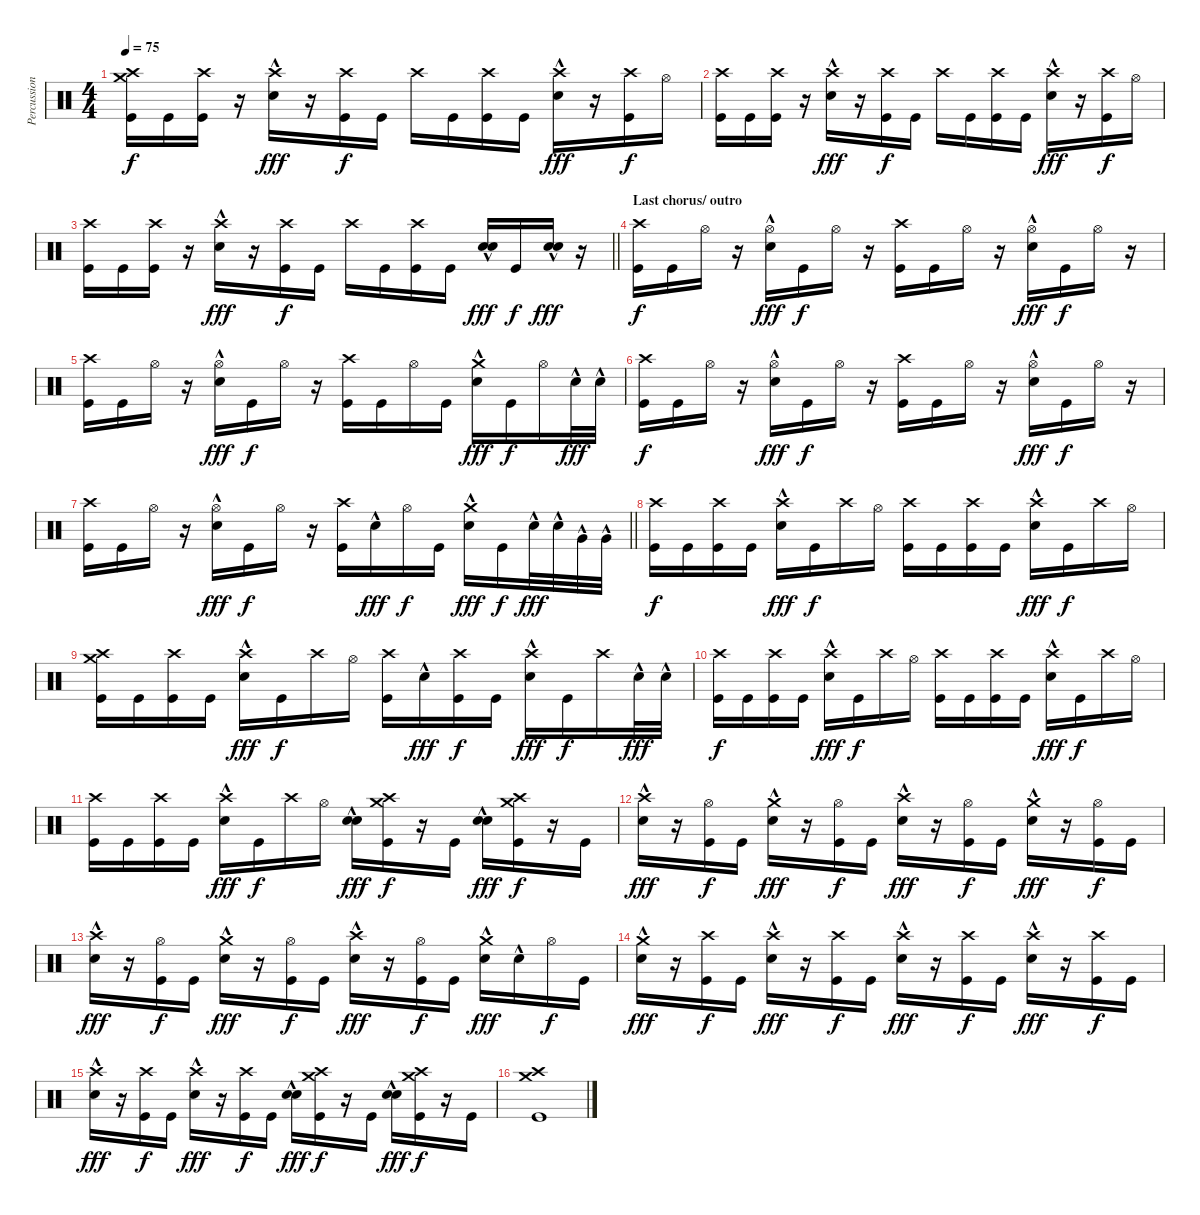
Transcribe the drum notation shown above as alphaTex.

\track ("Percussion" "Percussion") {instrument percussion}
\staff {score}
\articulation defaults
\ts (4 4)
\tempo 75
\clef neutral
\ks c
("Crash high (hit)" "Crash medium (hit)" "Kick (hit)").16{dy f} "Kick (hit)".16 ("Crash high (hit)" "Kick (hit)").16 r.16 ("Crash high (hit)" "Electric Snare (hit)"{hac}).16{dy fff} r.16 ("Crash high (hit)" "Kick (hit)").16{dy f} "Kick (hit)".16 "Crash high (hit)".16 "Kick (hit)".16 ("Crash high (hit)" "Kick (hit)").16 "Kick (hit)".16 ("Crash high (hit)" "Electric Snare (hit)"{hac}).16{dy fff} r.16 ("Crash high (hit)" "Kick (hit)").16{dy f} "Hi-Hat (open)".16 |
("Crash high (hit)" "Kick (hit)").16 "Kick (hit)".16 ("Crash high (hit)" "Kick (hit)").16 r.16 ("Crash high (hit)" "Electric Snare (hit)"{hac}).16{dy fff} r.16 ("Crash high (hit)" "Kick (hit)").16{dy f} "Kick (hit)".16 "Crash high (hit)".16 "Kick (hit)".16 ("Crash high (hit)" "Kick (hit)").16 "Kick (hit)".16 ("Crash high (hit)" "Electric Snare (hit)"{hac}).16{dy fff} r.16 ("Crash high (hit)" "Kick (hit)").16{dy f} "Hi-Hat (open)".16 |
\barLineRight lightlight
("Crash high (hit)" "Kick (hit)").16 "Kick (hit)".16 ("Crash high (hit)" "Kick (hit)").16 r.16 ("Crash high (hit)" "Electric Snare (hit)"{hac}).16{dy fff} r.16 ("Crash high (hit)" "Kick (hit)").16{dy f} "Kick (hit)".16 "Crash high (hit)".16 "Kick (hit)".16 ("Crash high (hit)" "Kick (hit)").16 "Kick (hit)".16 ("Electric Snare (hit)"{hac} "Electric Snare (hit)"{hac}).16{dy fff} "Kick (hit)".16{dy f} ("Electric Snare (hit)"{hac} "Electric Snare (hit)"{hac}).16{dy fff} r.16 |
\section ("" "Last chorus/ outro")
("Crash high (hit)" "Kick (hit)").16{dy f} "Kick (hit)".16 "Hi-Hat (open)".16 r.16 ("Hi-Hat (open)" "Electric Snare (hit)"{hac}).16{dy fff} "Kick (hit)".16{dy f} "Hi-Hat (open)".16 r.16 ("Crash high (hit)" "Kick (hit)").16 "Kick (hit)".16 "Hi-Hat (open)".16 r.16 ("Hi-Hat (open)" "Electric Snare (hit)"{hac}).16{dy fff} "Kick (hit)".16{dy f} "Hi-Hat (open)".16 r.16 |
("Crash high (hit)" "Kick (hit)").16 "Kick (hit)".16 "Hi-Hat (open)".16 r.16 ("Hi-Hat (open)" "Electric Snare (hit)"{hac}).16{dy fff} "Kick (hit)".16{dy f} "Hi-Hat (open)".16 r.16 ("Crash high (hit)" "Kick (hit)").16 "Kick (hit)".16 "Hi-Hat (open)".16 "Kick (hit)".16 ("Crash medium (hit)" "Electric Snare (hit)"{hac}).16{dy fff} "Kick (hit)".16{dy f} "Hi-Hat (open)".16 "Electric Snare (hit)"{hac}.32{dy fff} "Electric Snare (hit)"{hac}.32 |
("Crash high (hit)" "Kick (hit)").16{dy f} "Kick (hit)".16 "Hi-Hat (open)".16 r.16 ("Hi-Hat (open)" "Electric Snare (hit)"{hac}).16{dy fff} "Kick (hit)".16{dy f} "Hi-Hat (open)".16 r.16 ("Crash high (hit)" "Kick (hit)").16 "Kick (hit)".16 "Hi-Hat (open)".16 r.16 ("Hi-Hat (open)" "Electric Snare (hit)"{hac}).16{dy fff} "Kick (hit)".16{dy f} "Hi-Hat (open)".16 r.16 |
\barLineRight lightlight
("Crash high (hit)" "Kick (hit)").16 "Kick (hit)".16 "Hi-Hat (open)".16 r.16 ("Hi-Hat (open)" "Electric Snare (hit)"{hac}).16{dy fff} "Kick (hit)".16{dy f} "Hi-Hat (open)".16 r.16 ("Crash high (hit)" "Kick (hit)").16 "Electric Snare (hit)"{hac}.16{dy fff} "Hi-Hat (open)".16{dy f} "Kick (hit)".16 ("Crash medium (hit)" "Electric Snare (hit)"{hac}).16{dy fff} "Kick (hit)".16{dy f} "Electric Snare (hit)"{hac}.32{dy fff} "Electric Snare (hit)"{hac}.32 "Very Low Tom (hit)"{hac}.32 "Very Low Tom (hit)"{hac}.32 |
("Crash high (hit)" "Kick (hit)").16{dy f} "Kick (hit)".16 ("Crash high (hit)" "Kick (hit)").16 "Kick (hit)".16 ("Crash high (hit)" "Electric Snare (hit)"{hac}).16{dy fff} "Kick (hit)".16{dy f} "Crash high (hit)".16 "Hi-Hat (open)".16 ("Crash high (hit)" "Kick (hit)").16 "Kick (hit)".16 ("Crash high (hit)" "Kick (hit)").16 "Kick (hit)".16 ("Crash high (hit)" "Electric Snare (hit)"{hac}).16{dy fff} "Kick (hit)".16{dy f} "Crash high (hit)".16 "Hi-Hat (open)".16 |
("Crash medium (hit)" "Crash high (hit)" "Kick (hit)").16 "Kick (hit)".16 ("Crash high (hit)" "Kick (hit)").16 "Kick (hit)".16 ("Crash high (hit)" "Electric Snare (hit)"{hac}).16{dy fff} "Kick (hit)".16{dy f} "Crash high (hit)".16 "Hi-Hat (open)".16 ("Crash high (hit)" "Kick (hit)").16 "Electric Snare (hit)"{hac}.16{dy fff} ("Crash high (hit)" "Kick (hit)").16{dy f} "Kick (hit)".16 ("Crash high (hit)" "Electric Snare (hit)"{hac}).16{dy fff} "Kick (hit)".16{dy f} "Crash high (hit)".16 "Electric Snare (hit)"{hac}.32{dy fff} "Electric Snare (hit)"{hac}.32 |
("Crash high (hit)" "Kick (hit)").16{dy f} "Kick (hit)".16 ("Crash high (hit)" "Kick (hit)").16 "Kick (hit)".16 ("Crash high (hit)" "Electric Snare (hit)"{hac}).16{dy fff} "Kick (hit)".16{dy f} "Crash high (hit)".16 "Hi-Hat (open)".16 ("Crash high (hit)" "Kick (hit)").16 "Kick (hit)".16 ("Crash high (hit)" "Kick (hit)").16 "Kick (hit)".16 ("Crash high (hit)" "Electric Snare (hit)"{hac}).16{dy fff} "Kick (hit)".16{dy f} "Crash high (hit)".16 "Hi-Hat (open)".16 |
("Crash high (hit)" "Kick (hit)").16 "Kick (hit)".16 ("Crash high (hit)" "Kick (hit)").16 "Kick (hit)".16 ("Crash high (hit)" "Electric Snare (hit)"{hac}).16{dy fff} "Kick (hit)".16{dy f} "Crash high (hit)".16 "Hi-Hat (open)".16 ("Electric Snare (hit)"{hac} "Electric Snare (hit)"{hac}).16{dy fff} ("Crash medium (hit)" "Crash high (hit)" "Kick (hit)").16{dy f} r.16 "Kick (hit)".16 ("Electric Snare (hit)"{hac} "Electric Snare (hit)"{hac}).16{dy fff} ("Crash medium (hit)" "Crash high (hit)" "Kick (hit)").16{dy f} r.16 "Kick (hit)".16 |
("Crash high (hit)" "Electric Snare (hit)"{hac}).16{dy fff} r.16 ("Hi-Hat (open)" "Kick (hit)").16{dy f} "Kick (hit)".16 ("Crash medium (hit)" "Electric Snare (hit)"{hac}).16{dy fff} r.16 ("Hi-Hat (open)" "Kick (hit)").16{dy f} "Kick (hit)".16 ("Crash high (hit)" "Electric Snare (hit)"{hac}).16{dy fff} r.16 ("Hi-Hat (open)" "Kick (hit)").16{dy f} "Kick (hit)".16 ("Crash medium (hit)" "Electric Snare (hit)"{hac}).16{dy fff} r.16 ("Hi-Hat (open)" "Kick (hit)").16{dy f} "Kick (hit)".16 |
("Crash high (hit)" "Electric Snare (hit)"{hac}).16{dy fff} r.16 ("Hi-Hat (open)" "Kick (hit)").16{dy f} "Kick (hit)".16 ("Crash medium (hit)" "Electric Snare (hit)"{hac}).16{dy fff} r.16 ("Hi-Hat (open)" "Kick (hit)").16{dy f} "Kick (hit)".16 ("Crash high (hit)" "Electric Snare (hit)"{hac}).16{dy fff} r.16 ("Hi-Hat (open)" "Kick (hit)").16{dy f} "Kick (hit)".16 ("Crash medium (hit)" "Electric Snare (hit)"{hac}).16{dy fff} "Electric Snare (hit)"{hac}.16 "Hi-Hat (open)".16{dy f} "Kick (hit)".16 |
("Crash medium (hit)" "Electric Snare (hit)"{hac}).16{dy fff} r.16 ("Crash high (hit)" "Kick (hit)").16{dy f} "Kick (hit)".16 ("Crash high (hit)" "Electric Snare (hit)"{hac}).16{dy fff} r.16 ("Crash high (hit)" "Kick (hit)").16{dy f} "Kick (hit)".16 ("Crash high (hit)" "Electric Snare (hit)"{hac}).16{dy fff} r.16 ("Crash high (hit)" "Kick (hit)").16{dy f} "Kick (hit)".16 ("Crash high (hit)" "Electric Snare (hit)"{hac}).16{dy fff} r.16 ("Crash high (hit)" "Kick (hit)").16{dy f} "Kick (hit)".16 |
("Crash high (hit)" "Electric Snare (hit)"{hac}).16{dy fff} r.16 ("Crash high (hit)" "Kick (hit)").16{dy f} "Kick (hit)".16 ("Crash high (hit)" "Electric Snare (hit)"{hac}).16{dy fff} r.16 ("Crash high (hit)" "Kick (hit)").16{dy f} "Kick (hit)".16 ("Electric Snare (hit)"{hac} "Electric Snare (hit)"{hac}).16{dy fff} ("Crash medium (hit)" "Crash high (hit)" "Kick (hit)").16{dy f} r.16 "Kick (hit)".16 ("Electric Snare (hit)"{hac} "Electric Snare (hit)"{hac}).16{dy fff} ("Crash medium (hit)" "Crash high (hit)" "Kick (hit)").16{dy f} r.16 "Kick (hit)".16 |
("Crash medium (hit)" "Crash high (hit)" "Kick (hit)").1
